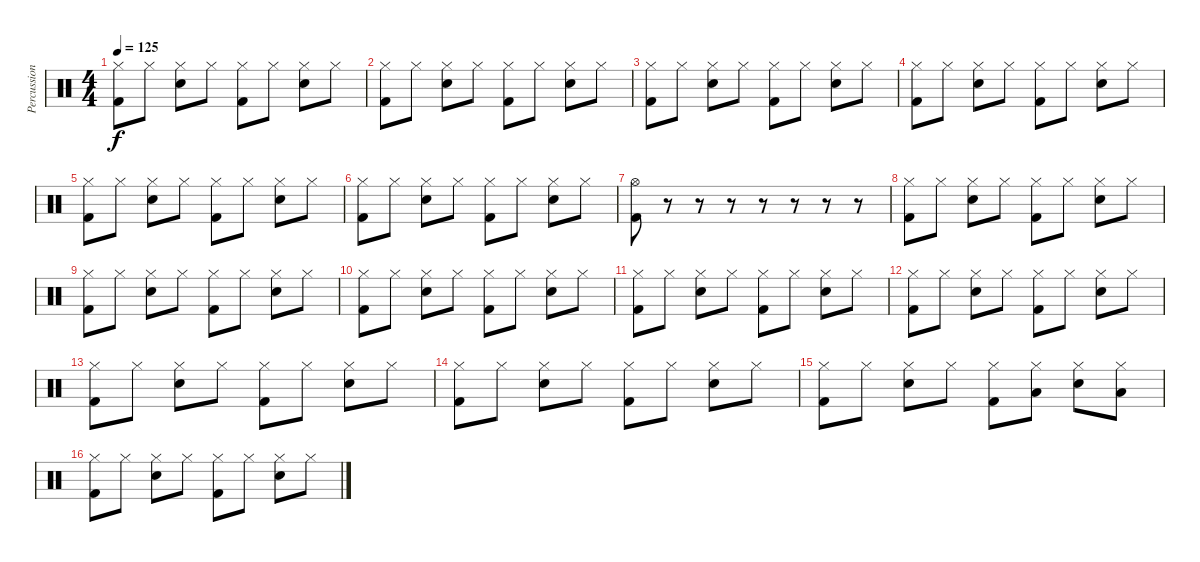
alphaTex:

\track ("Percussion" "Percussion") {instrument percussion}
\staff {score}
\articulation defaults
\ts (4 4)
\tempo 125
\clef neutral
\ks c
("Hi-Hat (closed)" "Kick (hit) 2").8{dy f} "Hi-Hat (closed)".8 ("Hi-Hat (closed)" "Snare (hit) 2").8 "Hi-Hat (closed)".8 ("Hi-Hat (closed)" "Kick (hit) 2").8 "Hi-Hat (closed)".8 ("Hi-Hat (closed)" "Snare (hit) 2").8 "Hi-Hat (closed)".8 |
("Hi-Hat (closed)" "Kick (hit) 2").8 "Hi-Hat (closed)".8 ("Hi-Hat (closed)" "Snare (hit) 2").8 "Hi-Hat (closed)".8 ("Hi-Hat (closed)" "Kick (hit) 2").8 "Hi-Hat (closed)".8 ("Hi-Hat (closed)" "Snare (hit) 2").8 "Hi-Hat (closed)".8 |
("Hi-Hat (closed)" "Kick (hit) 2").8 "Hi-Hat (closed)".8 ("Hi-Hat (closed)" "Snare (hit) 2").8 "Hi-Hat (closed)".8 ("Hi-Hat (closed)" "Kick (hit) 2").8 "Hi-Hat (closed)".8 ("Hi-Hat (closed)" "Snare (hit) 2").8 "Hi-Hat (closed)".8 |
("Hi-Hat (closed)" "Kick (hit) 2").8 "Hi-Hat (closed)".8 ("Hi-Hat (closed)" "Snare (hit) 2").8 "Hi-Hat (closed)".8 ("Hi-Hat (closed)" "Kick (hit) 2").8 "Hi-Hat (closed)".8 ("Hi-Hat (closed)" "Snare (hit) 2").8 "Hi-Hat (closed)".8 |
("Hi-Hat (closed)" "Kick (hit) 2").8 "Hi-Hat (closed)".8 ("Hi-Hat (closed)" "Snare (hit) 2").8 "Hi-Hat (closed)".8 ("Hi-Hat (closed)" "Kick (hit) 2").8 "Hi-Hat (closed)".8 ("Hi-Hat (closed)" "Snare (hit) 2").8 "Hi-Hat (closed)".8 |
("Hi-Hat (closed)" "Kick (hit) 2").8 "Hi-Hat (closed)".8 ("Hi-Hat (closed)" "Snare (hit) 2").8 "Hi-Hat (closed)".8 ("Hi-Hat (closed)" "Kick (hit) 2").8 "Hi-Hat (closed)".8 ("Hi-Hat (closed)" "Snare (hit) 2").8 "Hi-Hat (closed)".8 |
("Hi-Hat (open)" "Kick (hit) 2").8 r.8 r.8 r.8 r.8 r.8 r.8 r.8 |
("Hi-Hat (closed)" "Kick (hit) 2").8 "Hi-Hat (closed)".8 ("Hi-Hat (closed)" "Snare (hit) 2").8 "Hi-Hat (closed)".8 ("Hi-Hat (closed)" "Kick (hit) 2").8 "Hi-Hat (closed)".8 ("Hi-Hat (closed)" "Snare (hit) 2").8 "Hi-Hat (closed)".8 |
("Hi-Hat (closed)" "Kick (hit) 2").8 "Hi-Hat (closed)".8 ("Hi-Hat (closed)" "Snare (hit) 2").8 "Hi-Hat (closed)".8 ("Hi-Hat (closed)" "Kick (hit) 2").8 "Hi-Hat (closed)".8 ("Hi-Hat (closed)" "Snare (hit) 2").8 "Hi-Hat (closed)".8 |
("Hi-Hat (closed)" "Kick (hit) 2").8 "Hi-Hat (closed)".8 ("Hi-Hat (closed)" "Snare (hit) 2").8 "Hi-Hat (closed)".8 ("Hi-Hat (closed)" "Kick (hit) 2").8 "Hi-Hat (closed)".8 ("Hi-Hat (closed)" "Snare (hit) 2").8 "Hi-Hat (closed)".8 |
("Hi-Hat (closed)" "Kick (hit) 2").8 "Hi-Hat (closed)".8 ("Hi-Hat (closed)" "Snare (hit) 2").8 "Hi-Hat (closed)".8 ("Hi-Hat (closed)" "Kick (hit) 2").8 "Hi-Hat (closed)".8 ("Hi-Hat (closed)" "Snare (hit) 2").8 "Hi-Hat (closed)".8 |
("Hi-Hat (closed)" "Kick (hit) 2").8 "Hi-Hat (closed)".8 ("Hi-Hat (closed)" "Snare (hit) 2").8 "Hi-Hat (closed)".8 ("Hi-Hat (closed)" "Kick (hit) 2").8 "Hi-Hat (closed)".8 ("Hi-Hat (closed)" "Snare (hit) 2").8 "Hi-Hat (closed)".8 |
("Hi-Hat (closed)" "Kick (hit) 2").8 "Hi-Hat (closed)".8 ("Hi-Hat (closed)" "Snare (hit) 2").8 "Hi-Hat (closed)".8 ("Hi-Hat (closed)" "Kick (hit) 2").8 "Hi-Hat (closed)".8 ("Hi-Hat (closed)" "Snare (hit) 2").8 "Hi-Hat (closed)".8 |
("Hi-Hat (closed)" "Kick (hit) 2").8 "Hi-Hat (closed)".8 ("Hi-Hat (closed)" "Snare (hit) 2").8 "Hi-Hat (closed)".8 ("Hi-Hat (closed)" "Kick (hit) 2").8 "Hi-Hat (closed)".8 ("Hi-Hat (closed)" "Snare (hit) 2").8 "Hi-Hat (closed)".8 |
("Hi-Hat (closed)" "Kick (hit) 2").8 "Hi-Hat (closed)".8 ("Hi-Hat (closed)" "Snare (hit) 2").8 "Hi-Hat (closed)".8 ("Hi-Hat (closed)" "Kick (hit) 2").8 ("Hi-Hat (closed)" "Low Floor Tom (hit)").8 ("Hi-Hat (closed)" "Snare (hit) 2").8 ("Hi-Hat (closed)" "Low Tom (hit)").8 |
("Hi-Hat (closed)" "Kick (hit) 2").8 "Hi-Hat (closed)".8 ("Hi-Hat (closed)" "Snare (hit) 2").8 "Hi-Hat (closed)".8 ("Hi-Hat (closed)" "Kick (hit) 2").8 "Hi-Hat (closed)".8 ("Hi-Hat (closed)" "Snare (hit) 2").8 "Hi-Hat (closed)".8
